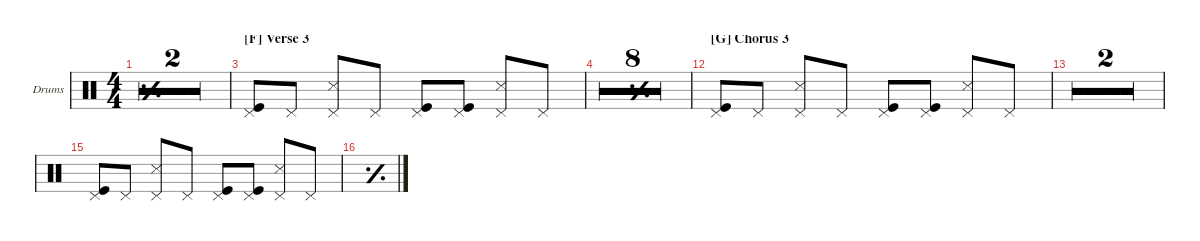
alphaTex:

\defaultSystemsLayout 4
\hideDynamics
\bracketExtendMode nobrackets
\firstSystemTrackNameOrientation horizontal
\otherSystemsTrackNameOrientation horizontal
\track ("Drums" "Drums") {multiBarRest instrument percussion}
\staff {score}
\articulation defaults
\ts (4 4)
\tempo 78
\clef neutral
\simile simple
\ks aminor
|
r.1 |
\section ("F" "Verse 3")
("Kick (hit)" "Pedal Hi-Hat (hit)").8 "Pedal Hi-Hat (hit)".8 ("Snare (side stick) 3" "Pedal Hi-Hat (hit)").8 "Pedal Hi-Hat (hit)".8 ("Kick (hit)" "Pedal Hi-Hat (hit)").8 ("Kick (hit)" "Pedal Hi-Hat (hit)").8 ("Snare (side stick) 3" "Pedal Hi-Hat (hit)").8 "Pedal Hi-Hat (hit)".8 |
\simile simple
|
\simile firstofdouble
|
\simile secondofdouble
|
\simile firstofdouble
|
\simile secondofdouble
|
\simile firstofdouble
|
\simile secondofdouble
|
\simile simple
|
\section ("G" "Chorus 3")
\simile none
("Kick (hit)" "Pedal Hi-Hat (hit)").8 "Pedal Hi-Hat (hit)".8 ("Snare (side stick) 3" "Pedal Hi-Hat (hit)").8 "Pedal Hi-Hat (hit)".8 ("Kick (hit)" "Pedal Hi-Hat (hit)").8 ("Kick (hit)" "Pedal Hi-Hat (hit)").8 ("Snare (side stick) 3" "Pedal Hi-Hat (hit)").8 "Pedal Hi-Hat (hit)".8 |
|
|
("Kick (hit)" "Pedal Hi-Hat (hit)").8 "Pedal Hi-Hat (hit)".8 ("Snare (side stick) 3" "Pedal Hi-Hat (hit)").8 "Pedal Hi-Hat (hit)".8 ("Kick (hit)" "Pedal Hi-Hat (hit)").8 ("Kick (hit)" "Pedal Hi-Hat (hit)").8 ("Snare (side stick) 3" "Pedal Hi-Hat (hit)").8 "Pedal Hi-Hat (hit)".8 |
\simile simple
